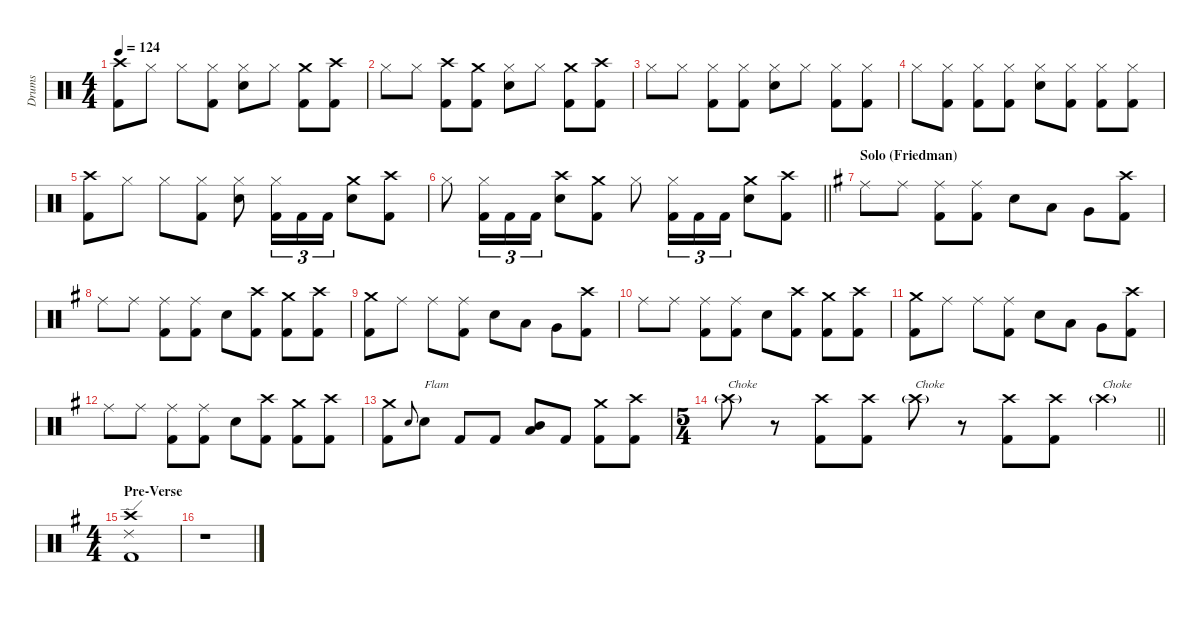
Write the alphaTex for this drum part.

\defaultSystemsLayout 4
\hideDynamics
\bracketExtendMode nobrackets
\firstSystemTrackNameMode fullname
\otherSystemsTrackNameOrientation horizontal
\track ("Drums" "drm.") {instrument percussion}
\staff {score}
\articulation defaults
\ts (4 4)
\tempo 124
\clef neutral
\ks c
("Crash high (hit)" "Kick (hit) 2").8{dy f beam Down} "Hi-Hat (closed)".8{dy mp beam Down} "Hi-Hat (closed)".8{dy mf beam Down} ("Hi-Hat (closed)" "Kick (hit) 2").8{beam Down} ("Hi-Hat (closed)" "Snare (hit) 2").8{beam Down} "Hi-Hat (closed)".8{dy f beam Down} ("Crash medium (hit)" "Kick (hit) 2").8{beam Down} ("Crash high (hit)" "Kick (hit) 2").8{beam Down} |
"Hi-Hat (closed)".8{beam Down} "Hi-Hat (closed)".8{beam Down} ("Crash high (hit)" "Kick (hit) 2").8{beam Down} ("Crash medium (hit)" "Kick (hit) 2").8{beam Down} ("Hi-Hat (closed)" "Snare (hit) 2").8{beam Down} "Hi-Hat (closed)".8{beam Down} ("Crash medium (hit)" "Kick (hit) 2").8{beam Down} ("Crash high (hit)" "Kick (hit) 2").8{beam Down} |
"Hi-Hat (closed)".8{dy mp beam Down} "Hi-Hat (closed)".8{dy mf beam Down} ("Hi-Hat (closed)" "Kick (hit) 2").8{dy f beam Down} ("Hi-Hat (closed)" "Kick (hit) 2").8{beam Down} ("Hi-Hat (closed)" "Snare (hit) 2").8{beam Down} "Hi-Hat (closed)".8{beam Down} ("Hi-Hat (closed)" "Kick (hit) 2").8{beam Down} ("Hi-Hat (closed)" "Kick (hit) 2").8{beam Down} |
"Hi-Hat (closed)".8{beam Down} ("Hi-Hat (closed)" "Kick (hit) 2").8{beam Down} ("Hi-Hat (closed)" "Kick (hit) 2").8{beam Down} ("Hi-Hat (closed)" "Kick (hit) 2").8{beam Down} ("Hi-Hat (closed)" "Snare (hit) 2").8{beam Down} ("Hi-Hat (closed)" "Kick (hit) 2").8{beam Down} ("Hi-Hat (closed)" "Kick (hit) 2").8{beam Down} ("Hi-Hat (closed)" "Kick (hit) 2").8{beam Down} |
("Crash high (hit)" "Kick (hit) 2").8{beam Down} "Hi-Hat (closed)".8{dy mp beam Down} "Hi-Hat (closed)".8{dy mf beam Down} ("Hi-Hat (closed)" "Kick (hit) 2").8{beam Down} ("Hi-Hat (closed)" "Snare (hit) 2").8{beam Down} ("Hi-Hat (closed)" "Kick (hit) 2").16{tu (3 2) dy f beam Down} "Kick (hit) 2".16{tu (3 2) beam Down} "Kick (hit) 2".16{tu (3 2) beam Down} ("Crash medium (hit)" "Snare (hit) 2").8{beam Down} ("Crash high (hit)" "Kick (hit) 2").8{beam Down} |
\barLineRight lightlight "Hi-Hat (closed)".8{beam Down}
("Hi-Hat (closed)" "Kick (hit) 2").16{tu (3 2) beam Down} "Kick (hit) 2".16{tu (3 2) beam Down} "Kick (hit) 2".16{tu (3 2) beam Down} ("Crash high (hit)" "Snare (hit) 2").8{beam Down} ("Crash medium (hit)" "Kick (hit) 2").8{beam Down} "Hi-Hat (closed)".8{beam Down} ("Hi-Hat (closed)" "Kick (hit) 2").16{tu (3 2) beam Down} "Kick (hit) 2".16{tu (3 2) beam Down} "Kick (hit) 2".16{tu (3 2) beam Down} ("Crash medium (hit)" "Snare (hit) 2").8{beam Down} ("Crash high (hit)" "Kick (hit) 2").8{beam Down} |
\section ("" "Solo (Friedman)")
\ks g "Ride (middle)"{acc forcenatural}.8{dy mp beam Down} "Ride (middle)"{acc forcenatural}.8{dy mf beam Down}
("Ride (middle)"{acc forcenatural} "Kick (hit) 2"{acc forcenatural}).8{dy f beam Down} ("Ride (middle)"{acc forcenatural} "Kick (hit) 2"{acc forcenatural}).8{beam Down} "Snare (hit) 2"{acc forcenatural}.8{beam Down} "Low Tom (hit)"{acc forcenatural}.8{beam Down} "Very Low Tom (hit)"{acc forcenatural}.8{beam Down} ("Crash high (hit)"{acc forcenatural} "Kick (hit) 2"{acc forcenatural}).8{beam Down} |
"Ride (middle)"{acc forcenatural}.8{dy mp beam Down} "Ride (middle)"{acc forcenatural}.8{dy mf beam Down} ("Ride (middle)"{acc forcenatural} "Kick (hit) 2"{acc forcenatural}).8{dy f beam Down} ("Ride (middle)"{acc forcenatural} "Kick (hit) 2"{acc forcenatural}).8{beam Down} "Snare (hit) 2"{acc forcenatural}.8{beam Down} ("Crash high (hit)"{acc forcenatural} "Kick (hit) 2"{acc forcenatural}).8{beam Down} ("Crash medium (hit)"{acc forcenatural} "Kick (hit) 2"{acc forcenatural}).8{beam Down} ("Crash high (hit)"{acc forcenatural} "Kick (hit) 2"{acc forcenatural}).8{beam Down} |
("Crash medium (hit)"{acc forcenatural} "Kick (hit) 2"{acc forcenatural}).8{beam Down} "Ride (middle)"{acc forcenatural}.8{dy mf beam Down} "Ride (middle)"{acc forcenatural}.8{dy f beam Down} ("Ride (middle)"{acc forcenatural} "Kick (hit) 2"{acc forcenatural}).8{beam Down} "Snare (hit) 2"{acc forcenatural}.8{beam Down} "Low Tom (hit)"{acc forcenatural}.8{beam Down} "Very Low Tom (hit)"{acc forcenatural}.8{beam Down} ("Crash high (hit)"{acc forcenatural} "Kick (hit) 2"{acc forcenatural}).8{beam Down} |
"Ride (middle)"{acc forcenatural}.8{dy mp beam Down} "Ride (middle)"{acc forcenatural}.8{dy mf beam Down} ("Ride (middle)"{acc forcenatural} "Kick (hit) 2"{acc forcenatural}).8{dy f beam Down} ("Ride (middle)"{acc forcenatural} "Kick (hit) 2"{acc forcenatural}).8{beam Down} "Snare (hit) 2"{acc forcenatural}.8{beam Down} ("Crash high (hit)"{acc forcenatural} "Kick (hit) 2"{acc forcenatural}).8{beam Down} ("Crash medium (hit)"{acc forcenatural} "Kick (hit) 2"{acc forcenatural}).8{beam Down} ("Crash high (hit)"{acc forcenatural} "Kick (hit) 2"{acc forcenatural}).8{beam Down} |
("Crash medium (hit)"{acc forcenatural} "Kick (hit) 2"{acc forcenatural}).8{beam Down} "Ride (middle)"{acc forcenatural}.8{dy mf beam Down} "Ride (middle)"{acc forcenatural}.8{dy f beam Down} ("Ride (middle)"{acc forcenatural} "Kick (hit) 2"{acc forcenatural}).8{beam Down} "Snare (hit) 2"{acc forcenatural}.8{beam Down} "Low Tom (hit)"{acc forcenatural}.8{beam Down} "Very Low Tom (hit)"{acc forcenatural}.8{beam Down} ("Crash high (hit)"{acc forcenatural} "Kick (hit) 2"{acc forcenatural}).8{beam Down} |
"Ride (middle)"{acc forcenatural}.8{dy mp beam Down} "Ride (middle)"{acc forcenatural}.8{dy mf beam Down} ("Ride (middle)"{acc forcenatural} "Kick (hit) 2"{acc forcenatural}).8{dy f beam Down} ("Ride (middle)"{acc forcenatural} "Kick (hit) 2"{acc forcenatural}).8{beam Down} "Snare (hit) 2"{acc forcenatural}.8{beam Down} ("Crash high (hit)"{acc forcenatural} "Kick (hit) 2"{acc forcenatural}).8{beam Down} ("Crash medium (hit)"{acc forcenatural} "Kick (hit) 2"{acc forcenatural}).8{beam Down} ("Crash high (hit)"{acc forcenatural} "Kick (hit) 2"{acc forcenatural}).8{beam Down} |
("Crash medium (hit)"{acc forcenatural} "Kick (hit) 2"{acc forcenatural}).8{beam Down} "Snare (hit) 2"{acc forcenatural}.8{gr onbeat dy mf beam Up} "Snare (hit) 2"{acc forcenatural}.8{txt "Flam" dy f beam Down} "Kick (hit) 2"{acc forcenatural}.8{beam Up} "Kick (hit) 2"{acc forcenatural}.8{beam Up} ("Mid Tom (hit)"{acc forcenatural} "Low Tom (hit)"{acc forcenatural}).8{beam Up} "Kick (hit) 2"{acc forcenatural}.8{beam Up} ("Crash medium (hit)"{acc forcenatural} "Kick (hit) 2"{acc forcenatural}).8{beam Down} ("Crash high (hit)"{acc forcenatural} "Kick (hit) 2"{acc forcenatural}).8{beam Down} |
\ts (5 4)
\beaming (8 2 2 2 4)
\barLineRight lightlight "Crash high (hit)"{g acc forcenatural}.8{txt "Choke" beam Down}
r.8{beam Down} ("Crash high (hit)"{acc forcenatural} "Kick (hit) 2"{acc forcenatural}).8{dy ff beam Down} ("Crash high (hit)"{acc forcenatural} "Kick (hit) 2"{acc forcenatural}).8{beam Down} "Crash high (hit)"{g acc forcenatural}.8{txt "Choke" dy f beam Down} r.8{beam Down} ("Crash high (hit)"{acc forcenatural} "Kick (hit) 2"{acc forcenatural}).8{dy ff beam Down} ("Crash high (hit)"{acc forcenatural} "Kick (hit) 2"{acc forcenatural}).8{beam Down} "Crash high (hit)"{g acc forcenatural}.4{txt "Choke" dy f beam Down} |
\ts (4 4)
\beaming (8 2 2 2 2)
\section ("" "Pre-Verse")
("Crash high (hit)"{acc forcenatural} "Ride (edge) 2"{acc forcenatural} "Kick (hit) 2"{acc forcenatural}).1{beam Down} |
r.1{beam Down}
